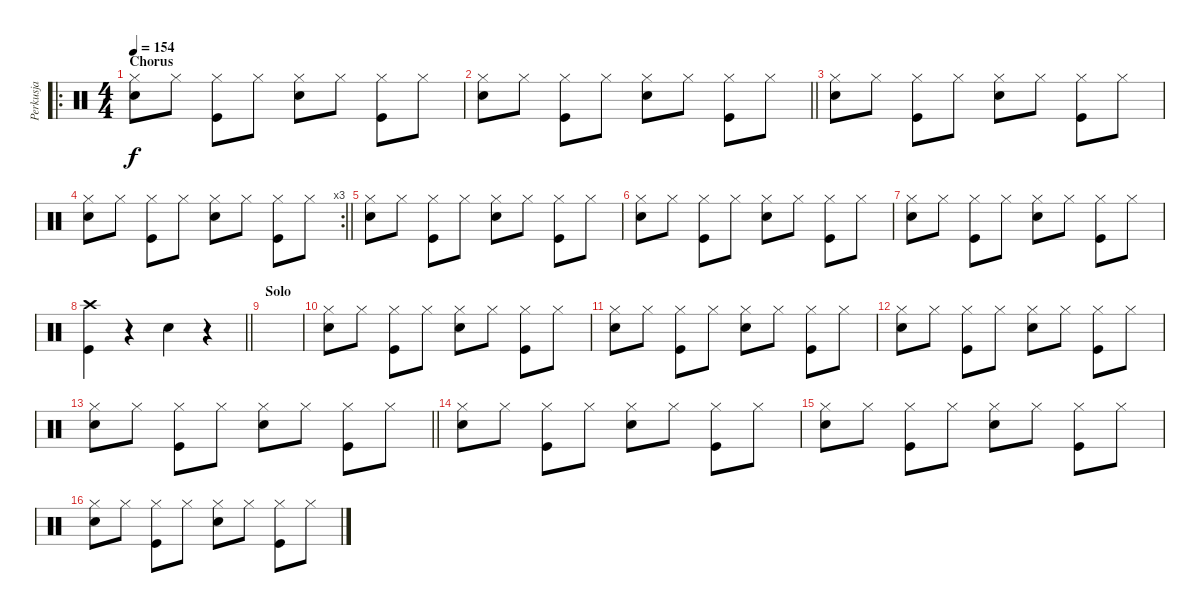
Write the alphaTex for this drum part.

\track ("Perkusja" "Perkusja") {instrument percussion}
\staff {score}
\articulation defaults
\ro
\ts (4 4)
\section ("" "Chorus")
\tempo 154
\clef neutral
\ks c
("Hi-Hat (closed)" "Snare (hit) 2").8{dy f} "Hi-Hat (closed)".8 ("Hi-Hat (closed)" "Kick (hit)").8 "Hi-Hat (closed)".8 ("Snare (hit) 2" "Hi-Hat (closed)").8 "Hi-Hat (closed)".8 ("Hi-Hat (closed)" "Kick (hit)").8 "Hi-Hat (closed)".8 |
\barLineRight lightlight
("Hi-Hat (closed)" "Snare (hit) 2").8 "Hi-Hat (closed)".8 ("Hi-Hat (closed)" "Kick (hit)").8 "Hi-Hat (closed)".8 ("Snare (hit) 2" "Hi-Hat (closed)").8 "Hi-Hat (closed)".8 ("Hi-Hat (closed)" "Kick (hit)").8 "Hi-Hat (closed)".8 |
("Hi-Hat (closed)" "Snare (hit) 2").8 "Hi-Hat (closed)".8 ("Hi-Hat (closed)" "Kick (hit)").8 "Hi-Hat (closed)".8 ("Snare (hit) 2" "Hi-Hat (closed)").8 "Hi-Hat (closed)".8 ("Hi-Hat (closed)" "Kick (hit)").8 "Hi-Hat (closed)".8 |
\rc 3
\barLineRight lightlight
("Hi-Hat (closed)" "Snare (hit) 2").8 "Hi-Hat (closed)".8 ("Hi-Hat (closed)" "Kick (hit)").8 "Hi-Hat (closed)".8 ("Snare (hit) 2" "Hi-Hat (closed)").8 "Hi-Hat (closed)".8 ("Hi-Hat (closed)" "Kick (hit)").8 "Hi-Hat (closed)".8 |
("Hi-Hat (closed)" "Snare (hit) 2").8 "Hi-Hat (closed)".8 ("Hi-Hat (closed)" "Kick (hit)").8 "Hi-Hat (closed)".8 ("Snare (hit) 2" "Hi-Hat (closed)").8 "Hi-Hat (closed)".8 ("Hi-Hat (closed)" "Kick (hit)").8 "Hi-Hat (closed)".8 |
("Hi-Hat (closed)" "Snare (hit) 2").8 "Hi-Hat (closed)".8 ("Hi-Hat (closed)" "Kick (hit)").8 "Hi-Hat (closed)".8 ("Snare (hit) 2" "Hi-Hat (closed)").8 "Hi-Hat (closed)".8 ("Hi-Hat (closed)" "Kick (hit)").8 "Hi-Hat (closed)".8 |
("Hi-Hat (closed)" "Snare (hit) 2").8 "Hi-Hat (closed)".8 ("Hi-Hat (closed)" "Kick (hit)").8 "Hi-Hat (closed)".8 ("Snare (hit) 2" "Hi-Hat (closed)").8 "Hi-Hat (closed)".8 ("Hi-Hat (closed)" "Kick (hit)").8 "Hi-Hat (closed)".8 |
\barLineRight lightlight
("Crash high (hit)" "Kick (hit)").4 r.4 "Snare (hit) 2".4 r.4 |
\section ("" "Solo")
|
("Hi-Hat (closed)" "Snare (hit) 2").8 "Hi-Hat (closed)".8 ("Hi-Hat (closed)" "Kick (hit)").8 "Hi-Hat (closed)".8 ("Snare (hit) 2" "Hi-Hat (closed)").8 "Hi-Hat (closed)".8 ("Hi-Hat (closed)" "Kick (hit)").8 "Hi-Hat (closed)".8 |
("Hi-Hat (closed)" "Snare (hit) 2").8 "Hi-Hat (closed)".8 ("Hi-Hat (closed)" "Kick (hit)").8 "Hi-Hat (closed)".8 ("Snare (hit) 2" "Hi-Hat (closed)").8 "Hi-Hat (closed)".8 ("Hi-Hat (closed)" "Kick (hit)").8 "Hi-Hat (closed)".8 |
("Hi-Hat (closed)" "Snare (hit) 2").8 "Hi-Hat (closed)".8 ("Hi-Hat (closed)" "Kick (hit)").8 "Hi-Hat (closed)".8 ("Snare (hit) 2" "Hi-Hat (closed)").8 "Hi-Hat (closed)".8 ("Hi-Hat (closed)" "Kick (hit)").8 "Hi-Hat (closed)".8 |
\barLineRight lightlight
("Hi-Hat (closed)" "Snare (hit) 2").8 "Hi-Hat (closed)".8 ("Hi-Hat (closed)" "Kick (hit)").8 "Hi-Hat (closed)".8 ("Snare (hit) 2" "Hi-Hat (closed)").8 "Hi-Hat (closed)".8 ("Hi-Hat (closed)" "Kick (hit)").8 "Hi-Hat (closed)".8 |
("Hi-Hat (closed)" "Snare (hit) 2").8 "Hi-Hat (closed)".8 ("Hi-Hat (closed)" "Kick (hit)").8 "Hi-Hat (closed)".8 ("Snare (hit) 2" "Hi-Hat (closed)").8 "Hi-Hat (closed)".8 ("Hi-Hat (closed)" "Kick (hit)").8 "Hi-Hat (closed)".8 |
("Hi-Hat (closed)" "Snare (hit) 2").8 "Hi-Hat (closed)".8 ("Hi-Hat (closed)" "Kick (hit)").8 "Hi-Hat (closed)".8 ("Snare (hit) 2" "Hi-Hat (closed)").8 "Hi-Hat (closed)".8 ("Hi-Hat (closed)" "Kick (hit)").8 "Hi-Hat (closed)".8 |
("Hi-Hat (closed)" "Snare (hit) 2").8 "Hi-Hat (closed)".8 ("Hi-Hat (closed)" "Kick (hit)").8 "Hi-Hat (closed)".8 ("Snare (hit) 2" "Hi-Hat (closed)").8 "Hi-Hat (closed)".8 ("Hi-Hat (closed)" "Kick (hit)").8 "Hi-Hat (closed)".8
